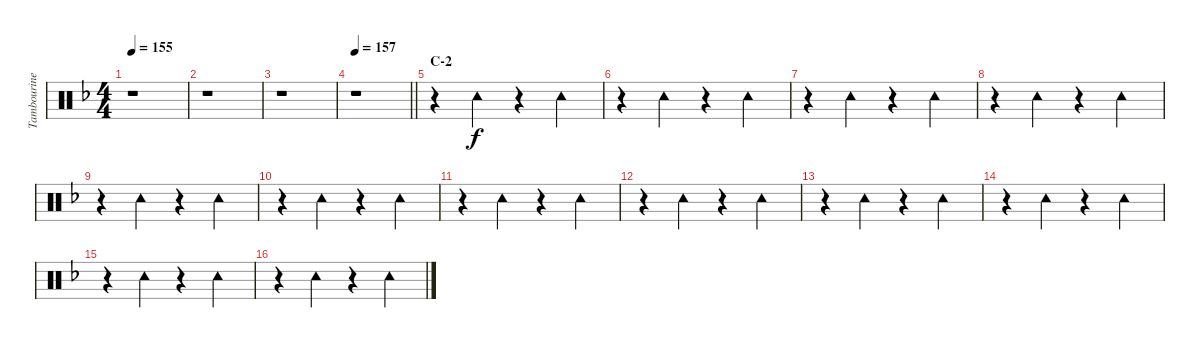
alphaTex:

\track ("Tambourine" "Tambourine") {instrument percussion}
\staff {score}
\articulation defaults
\ts (4 4)
\tempo 155
\clef neutral
\ks f
r.1{dy f} |
r.1 |
r.1 |
\tempo 157
\barLineRight lightlight
r.1 |
\section ("" "C-2")
r.4 "Tambourine (hit)".4 r.4 "Tambourine (hit)".4 |
r.4 "Tambourine (hit)".4 r.4 "Tambourine (hit)".4 |
r.4 "Tambourine (hit)".4 r.4 "Tambourine (hit)".4 |
r.4 "Tambourine (hit)".4 r.4 "Tambourine (hit)".4 |
r.4 "Tambourine (hit)".4 r.4 "Tambourine (hit)".4 |
r.4 "Tambourine (hit)".4 r.4 "Tambourine (hit)".4 |
r.4 "Tambourine (hit)".4 r.4 "Tambourine (hit)".4 |
r.4 "Tambourine (hit)".4 r.4 "Tambourine (hit)".4 |
r.4 "Tambourine (hit)".4 r.4 "Tambourine (hit)".4 |
r.4 "Tambourine (hit)".4 r.4 "Tambourine (hit)".4 |
r.4 "Tambourine (hit)".4 r.4 "Tambourine (hit)".4 |
r.4 "Tambourine (hit)".4 r.4 "Tambourine (hit)".4
